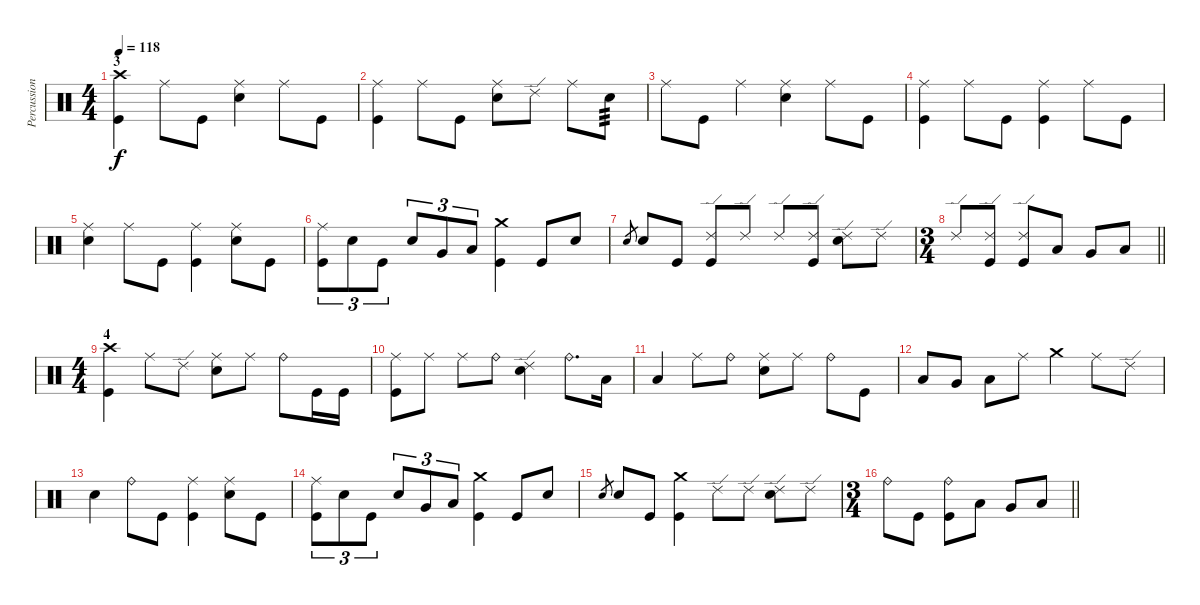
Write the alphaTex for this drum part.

\track ("Percussion" "Percussion") {instrument percussion}
\staff {score}
\articulation defaults
\ts (4 4)
\section ("" "3")
\tempo 118
\clef neutral
\ks c
("Crash high (hit)" "Kick (hit)").4{dy f volume 13} "Ride (middle)".8 "Kick (hit)".8 ("Ride (middle)" "Snare (hit) 2").4 "Ride (middle)".8 "Kick (hit)".8 |
("Ride (middle)" "Kick (hit)").4 "Ride (middle)".8 "Kick (hit)".8 ("Ride (middle)" "Snare (hit) 2").8 "Ride (edge) 2".8 "Ride (middle)".8 "Snare (hit) 2".8{tp 3} |
"Ride (middle)".8 "Kick (hit)".8 "Ride (middle)".4 ("Ride (middle)" "Snare (hit) 2").4 "Ride (middle)".8 "Kick (hit)".8 |
("Ride (middle)" "Kick (hit)").4 "Ride (middle)".8 "Kick (hit)".8 ("Ride (middle)" "Kick (hit)").4 "Ride (middle)".8 "Kick (hit)".8 |
("Ride (middle)" "Snare (hit) 2").4 "Ride (middle)".8 "Kick (hit)".8 ("Ride (middle)" "Kick (hit)").4 ("Ride (middle)" "Snare (hit) 2").8 "Kick (hit)".8 |
("Ride (middle)" "Kick (hit)").8{tu (3 2)} "Snare (hit) 2".8{tu (3 2)} "Kick (hit)".8{tu (3 2)} "Snare (hit) 2".8{tu (3 2)} "Very Low Tom (hit)".8{tu (3 2) volume 10} "Low Floor Tom (hit)".8{tu (3 2)} ("Crash medium (hit)" "Kick (hit)").4 "Kick (hit)".8{volume 13} "Snare (hit) 2".8 |
"Snare (hit) 2".8{gr} "Snare (hit) 2".8 "Kick (hit)".8 ("Ride (edge) 2" "Kick (hit)").8{volume 12} "Ride (edge) 2".8 "Ride (edge) 2".8 ("Ride (edge) 2" "Kick (hit)").8 ("Ride (edge) 2" "Snare (hit) 2").8 "Ride (edge) 2".8 |
\ts (3 4)
\barLineRight lightlight "Ride (edge) 2".8
("Ride (edge) 2" "Kick (hit)").8 ("Ride (edge) 2" "Kick (hit)").8 "Low Tom (hit)".8 "Very Low Tom (hit)".8 "Low Floor Tom (hit)".8 |
\ts (4 4)
\section ("" "4")
("Crash high (hit)" "Kick (hit)").4 "Ride (middle)".8 "Ride (edge) 2".8 ("Ride (middle)" "Snare (hit) 2").8 "Ride (middle)".8 "Ride (bell)".8 "Kick (hit)".16 "Kick (hit)".16 |
("Ride (middle)" "Kick (hit)").8 "Ride (middle)".8{volume 9} "Ride (middle)".8{volume 12} "Ride (bell)".8 ("Ride (edge) 2" "Snare (hit) 2").4 "Ride (bell)".8{d} "Low Floor Tom (hit)".16 |
"Low Floor Tom (hit)".4 "Ride (middle)".8 "Ride (bell)".8 ("Ride (middle)" "Snare (hit) 2").8 "Ride (middle)".8 "Ride (bell)".8 "Kick (hit)".8 |
"Low Tom (hit)".8{volume 11} "Very Low Tom (hit)".8{volume 12} "Low Floor Tom (hit)".8{volume 12} "Ride (middle)".8 "Crash medium (hit)".4 "Ride (middle)".8 "Ride (edge) 2".8 |
"Snare (hit) 2".4 "Ride (bell)".8 "Kick (hit)".8 ("Ride (middle)" "Kick (hit)").4 ("Ride (middle)" "Snare (hit) 2").8 "Kick (hit)".8 |
("Ride (middle)" "Kick (hit)").8{tu (3 2)} "Snare (hit) 2".8{tu (3 2)} "Kick (hit)".8{tu (3 2)} "Snare (hit) 2".8{tu (3 2)} "Very Low Tom (hit)".8{tu (3 2) volume 10} "Low Floor Tom (hit)".8{tu (3 2)} ("Crash medium (hit)" "Kick (hit)").4 "Kick (hit)".8{volume 12} "Snare (hit) 2".8 |
"Snare (hit) 2".8{gr} "Snare (hit) 2".8 "Kick (hit)".8 ("Crash medium (hit)" "Kick (hit)").4 "Ride (edge) 2".8 "Ride (edge) 2".8 ("Ride (edge) 2" "Snare (hit) 2").8 "Ride (edge) 2".8 |
\ts (3 4)
\barLineRight lightlight "Ride (bell)".8 "Kick (hit)".8
("Ride (bell)" "Kick (hit)").8 "Low Tom (hit)".8 "Very Low Tom (hit)".8 "Low Floor Tom (hit)".8
